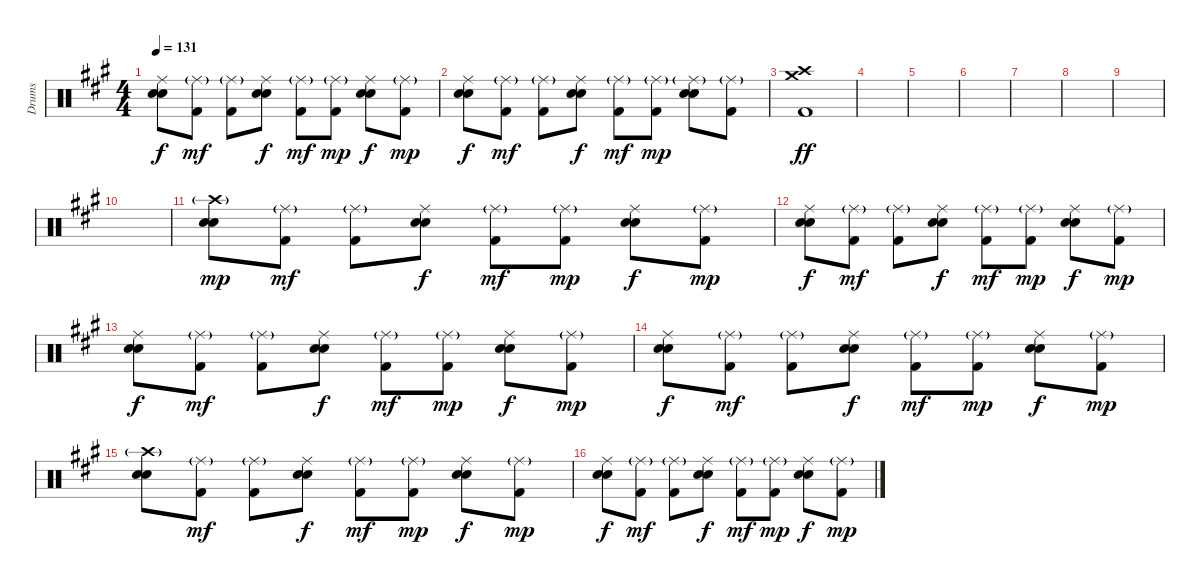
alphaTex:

\track ("Drums" "Drums") {instrument percussion}
\staff {score}
\articulation defaults
\ts (4 4)
\tempo 131
\clef neutral
\ks a
("Ride (middle)" "Electric Snare (hit)" "Snare (hit) 2").8{dy f} ("Ride (middle)"{g} "Kick (hit) 2").8{dy mf} ("Ride (middle)"{g} "Kick (hit) 2").8 ("Ride (middle)" "Electric Snare (hit)" "Snare (hit) 2").8{dy f} ("Ride (middle)"{g} "Kick (hit) 2").8{dy mf} ("Ride (middle)"{g} "Kick (hit) 2").8{dy mp} ("Ride (middle)" "Electric Snare (hit)" "Snare (hit) 2").8{dy f} ("Ride (middle)"{g} "Kick (hit) 2").8{dy mp} |
("Ride (middle)" "Electric Snare (hit)" "Snare (hit) 2").8{dy f} ("Ride (middle)"{g} "Kick (hit) 2").8{dy mf} ("Ride (middle)"{g} "Kick (hit) 2").8 ("Ride (middle)" "Electric Snare (hit)" "Snare (hit) 2").8{dy f} ("Ride (middle)"{g} "Kick (hit) 2").8{dy mf} ("Ride (middle)"{g} "Kick (hit) 2").8{dy mp} ("Ride (middle)"{g} "Electric Snare (hit)" "Snare (hit) 2").8 ("Ride (middle)"{g} "Kick (hit) 2").8 |
("Crash high (hit)" "Crash medium (hit)" "Kick (hit) 2").1{dy ff} |
|
|
|
|
|
|
|
("Crash high (hit)"{g} "Electric Snare (hit)" "Snare (hit) 2").8{dy mp} ("Ride (middle)"{g} "Kick (hit) 2").8{dy mf} ("Ride (middle)"{g} "Kick (hit) 2").8 ("Ride (middle)" "Electric Snare (hit)" "Snare (hit) 2").8{dy f} ("Ride (middle)"{g} "Kick (hit) 2").8{dy mf} ("Ride (middle)"{g} "Kick (hit) 2").8{dy mp} ("Ride (middle)" "Electric Snare (hit)" "Snare (hit) 2").8{dy f} ("Ride (middle)"{g} "Kick (hit) 2").8{dy mp} |
("Ride (middle)" "Electric Snare (hit)" "Snare (hit) 2").8{dy f} ("Ride (middle)"{g} "Kick (hit) 2").8{dy mf} ("Ride (middle)"{g} "Kick (hit) 2").8 ("Ride (middle)" "Electric Snare (hit)" "Snare (hit) 2").8{dy f} ("Ride (middle)"{g} "Kick (hit) 2").8{dy mf} ("Ride (middle)"{g} "Kick (hit) 2").8{dy mp} ("Ride (middle)" "Electric Snare (hit)" "Snare (hit) 2").8{dy f} ("Ride (middle)"{g} "Kick (hit) 2").8{dy mp} |
("Ride (middle)" "Electric Snare (hit)" "Snare (hit) 2").8{dy f} ("Ride (middle)"{g} "Kick (hit) 2").8{dy mf} ("Ride (middle)"{g} "Kick (hit) 2").8 ("Ride (middle)" "Electric Snare (hit)" "Snare (hit) 2").8{dy f} ("Ride (middle)"{g} "Kick (hit) 2").8{dy mf} ("Ride (middle)"{g} "Kick (hit) 2").8{dy mp} ("Ride (middle)" "Electric Snare (hit)" "Snare (hit) 2").8{dy f} ("Ride (middle)"{g} "Kick (hit) 2").8{dy mp} |
("Ride (middle)" "Electric Snare (hit)" "Snare (hit) 2").8{dy f} ("Ride (middle)"{g} "Kick (hit) 2").8{dy mf} ("Ride (middle)"{g} "Kick (hit) 2").8 ("Ride (middle)" "Electric Snare (hit)" "Snare (hit) 2").8{dy f} ("Ride (middle)"{g} "Kick (hit) 2").8{dy mf} ("Ride (middle)"{g} "Kick (hit) 2").8{dy mp} ("Ride (middle)" "Electric Snare (hit)" "Snare (hit) 2").8{dy f} ("Ride (middle)"{g} "Kick (hit) 2").8{dy mp} |
("Crash high (hit)"{g} "Electric Snare (hit)" "Snare (hit) 2").8 ("Ride (middle)"{g} "Kick (hit) 2").8{dy mf} ("Ride (middle)"{g} "Kick (hit) 2").8 ("Ride (middle)" "Electric Snare (hit)" "Snare (hit) 2").8{dy f} ("Ride (middle)"{g} "Kick (hit) 2").8{dy mf} ("Ride (middle)"{g} "Kick (hit) 2").8{dy mp} ("Ride (middle)" "Electric Snare (hit)" "Snare (hit) 2").8{dy f} ("Ride (middle)"{g} "Kick (hit) 2").8{dy mp} |
("Ride (middle)" "Electric Snare (hit)" "Snare (hit) 2").8{dy f} ("Ride (middle)"{g} "Kick (hit) 2").8{dy mf} ("Ride (middle)"{g} "Kick (hit) 2").8 ("Ride (middle)" "Electric Snare (hit)" "Snare (hit) 2").8{dy f} ("Ride (middle)"{g} "Kick (hit) 2").8{dy mf} ("Ride (middle)"{g} "Kick (hit) 2").8{dy mp} ("Ride (middle)" "Electric Snare (hit)" "Snare (hit) 2").8{dy f} ("Ride (middle)"{g} "Kick (hit) 2").8{dy mp}
